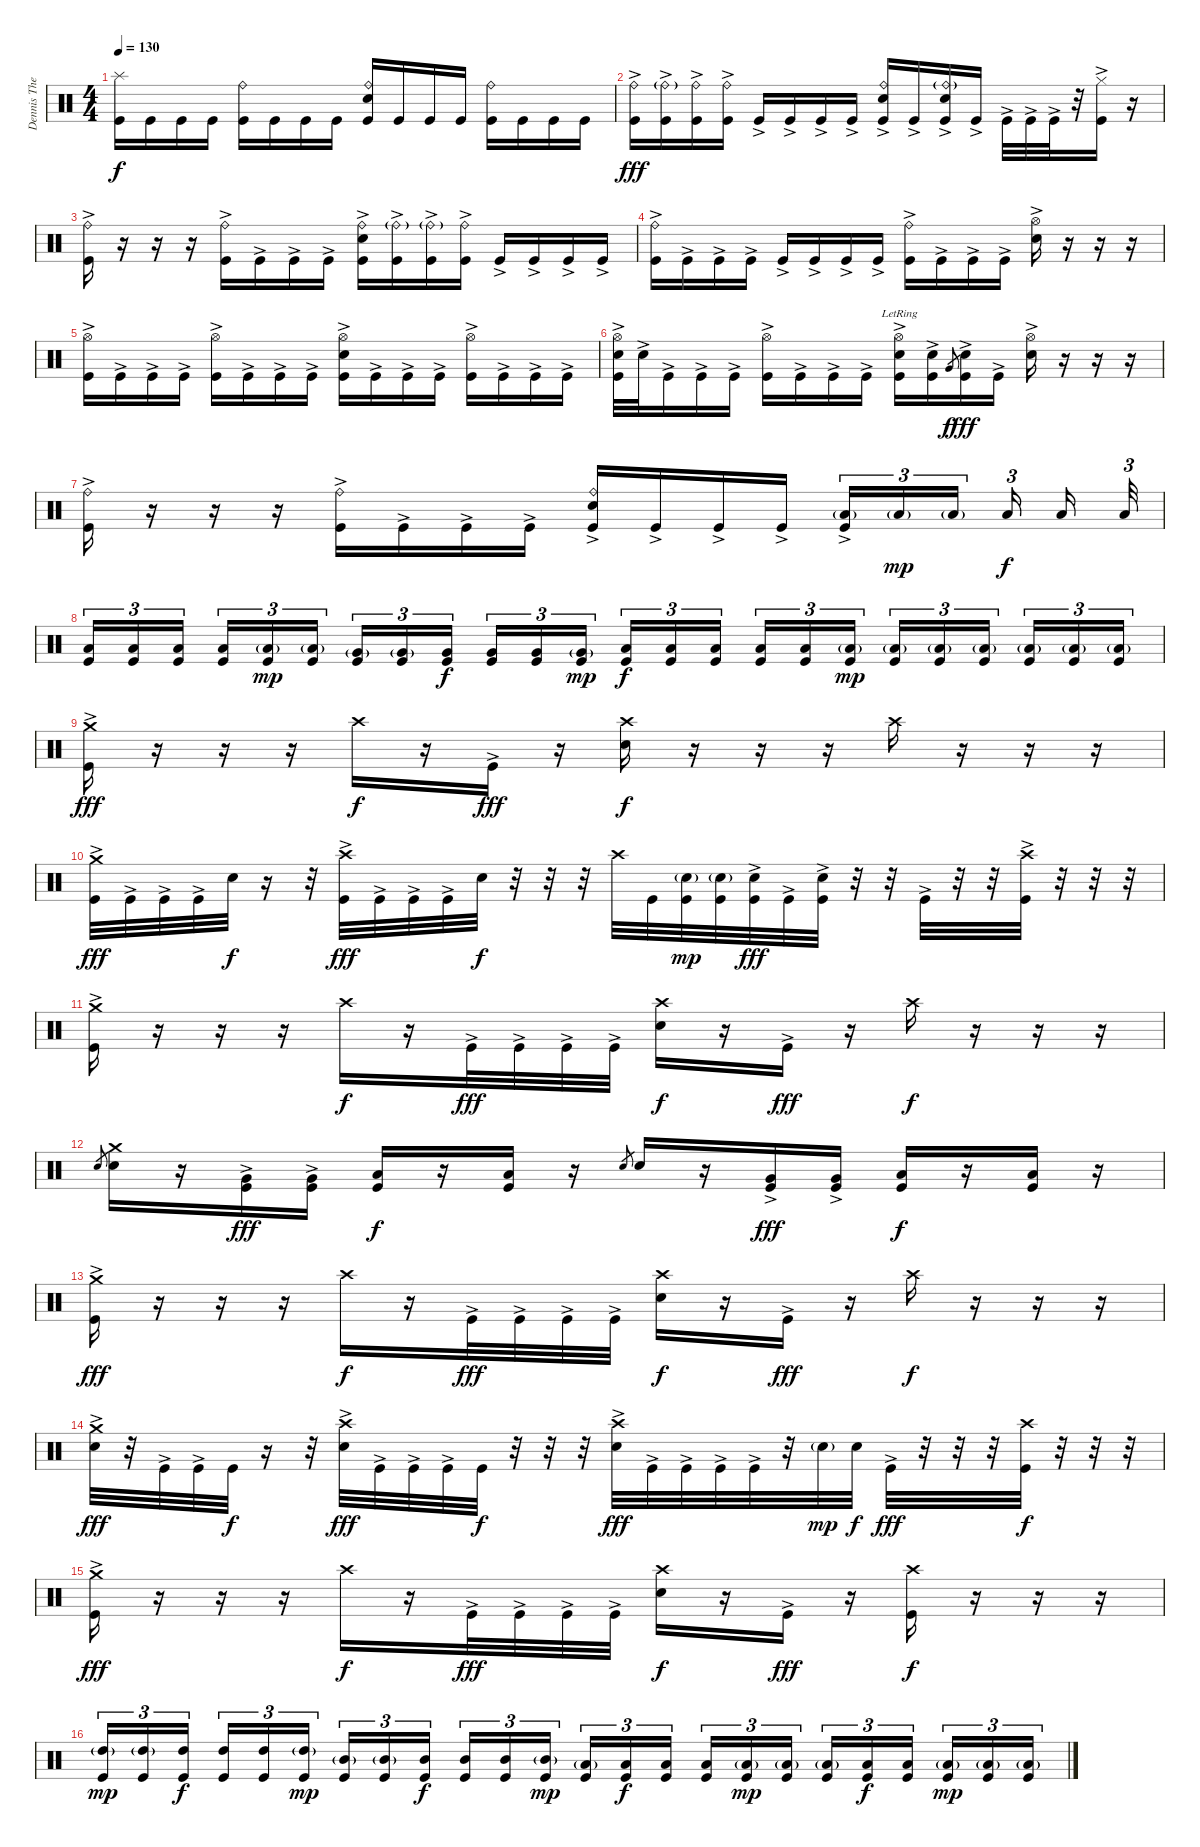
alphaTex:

\track ("Dennis The Menace" "Dennis The") {instrument percussion}
\staff {score}
\articulation defaults
\ts (4 4)
\tempo 130
\clef neutral
\ks c
("Splash (hit)" "Kick (hit)").16{dy f} "Kick (hit)".16 "Kick (hit)".16 "Kick (hit)".16 ("Ride (bell)" "Kick (hit)").16 "Kick (hit)".16 "Kick (hit)".16 "Kick (hit)".16 ("Ride (bell)" "Electric Snare (hit)" "Kick (hit)").16 "Kick (hit)".16 "Kick (hit)".16 "Kick (hit)".16 ("Ride (bell)" "Kick (hit)").16 "Kick (hit)".16 "Kick (hit)".16 "Kick (hit)".16 |
("Ride (bell)" "Kick (hit)"{ac}).16{dy fff} ("Ride (bell)"{g} "Kick (hit)"{ac}).16 ("Ride (bell)" "Kick (hit)"{ac}).16 ("Ride (bell)" "Kick (hit)"{ac}).16 "Kick (hit)"{ac}.16 "Kick (hit)"{ac}.16 "Kick (hit)"{ac}.16 "Kick (hit)"{ac}.16 ("Ride (bell)" "Electric Snare (hit)"{ac} "Kick (hit)"{ac}).16 "Kick (hit)"{ac}.16 ("Ride (bell)"{g} "Electric Snare (hit)" "Kick (hit)"{ac}).16 "Kick (hit)"{ac}.16 "Kick (hit)"{ac}.32 "Kick (hit)"{ac}.32 "Kick (hit)"{ac}.32 r.32 ("Hi-Hat (closed)" "Kick (hit)"{ac}).16 r.16 |
("Ride (bell)" "Kick (hit)"{ac}).16 r.16 r.16 r.16 ("Ride (bell)" "Kick (hit)"{ac}).16 "Kick (hit)"{ac}.16 "Kick (hit)"{ac}.16 "Kick (hit)"{ac}.16 ("Ride (bell)" "Electric Snare (hit)" "Kick (hit)"{ac}).16 ("Ride (bell)"{g} "Kick (hit)"{ac}).16 ("Ride (bell)"{g} "Kick (hit)"{ac}).16 ("Ride (bell)" "Kick (hit)"{ac}).16 "Kick (hit)"{ac}.16 "Kick (hit)"{ac}.16 "Kick (hit)"{ac}.16 "Kick (hit)"{ac}.16 |
("Ride (bell)" "Kick (hit)"{ac}).16 "Kick (hit)"{ac}.16 "Kick (hit)"{ac}.16 "Kick (hit)"{ac}.16 "Kick (hit)"{ac}.16 "Kick (hit)"{ac}.16 "Kick (hit)"{ac}.16 "Kick (hit)"{ac}.16 ("Ride (bell)" "Kick (hit)"{ac}).16 "Kick (hit)"{ac}.16 "Kick (hit)"{ac}.16 "Kick (hit)"{ac}.16 ("Hi-Hat (open)" "Electric Snare (hit)"{ac}).16 r.16 r.16 r.16 |
("Hi-Hat (open)" "Kick (hit)"{ac}).16 "Kick (hit)"{ac}.16 "Kick (hit)"{ac}.16 "Kick (hit)"{ac}.16 ("Hi-Hat (open)" "Kick (hit)"{ac}).16 "Kick (hit)"{ac}.16 "Kick (hit)"{ac}.16 "Kick (hit)"{ac}.16 ("Hi-Hat (open)" "Electric Snare (hit)" "Kick (hit)"{ac}).16 "Kick (hit)"{ac}.16 "Kick (hit)"{ac}.16 "Kick (hit)"{ac}.16 ("Hi-Hat (open)" "Kick (hit)"{ac}).16 "Kick (hit)"{ac}.16 "Kick (hit)"{ac}.16 "Kick (hit)"{ac}.16 |
("Hi-Hat (open)" "Electric Snare (hit)" "Kick (hit)"{ac}).32 "Electric Snare (hit)"{ac}.32 "Kick (hit)"{ac}.16 "Kick (hit)"{ac}.16 "Kick (hit)"{ac}.16 ("Hi-Hat (open)" "Kick (hit)"{ac}).16 "Kick (hit)"{ac}.16 "Kick (hit)"{ac}.16 "Kick (hit)"{ac}.16 ("Hi-Hat (open)" "Electric Snare (hit)"{ac lr} "Kick (hit)"{ac}).16 ("Electric Snare (hit)" "Kick (hit)"{ac}).16 "Very Low Tom (hit)".8{gr dy f} ("Electric Snare (hit)" "Kick (hit)"{ac}).16{dy fff} "Kick (hit)"{ac}.16 ("Hi-Hat (open)" "Electric Snare (hit)"{ac}).16 r.16 r.16 r.16 |
("Ride (bell)" "Kick (hit)"{ac}).16 r.16 r.16 r.16 ("Ride (bell)" "Kick (hit)"{ac}).16 "Kick (hit)"{ac}.16 "Kick (hit)"{ac}.16 "Kick (hit)"{ac}.16 ("Ride (bell)" "Electric Snare (hit)" "Kick (hit)"{ac}).16 "Kick (hit)"{ac}.16 "Kick (hit)"{ac}.16 "Kick (hit)"{ac}.16 ("Low Tom (hit)"{g} "Kick (hit)"{ac}).16{tu (3 2)} "Low Tom (hit)"{g}.16{tu (3 2) dy mp} "Low Tom (hit)"{g}.16{tu (3 2)} "Low Tom (hit)".16{tu (3 2) dy f} "Low Tom (hit)".16 "Low Tom (hit)".32{tu (3 2)} |
("Low Tom (hit)" "Kick (hit)").16{tu (3 2)} ("Low Tom (hit)" "Kick (hit)").16{tu (3 2)} ("Low Tom (hit)" "Kick (hit)").16{tu (3 2)} ("Low Tom (hit)" "Kick (hit)").16{tu (3 2)} ("Low Tom (hit)"{g} "Kick (hit)").16{tu (3 2) dy mp} ("Low Tom (hit)"{g} "Kick (hit)").16{tu (3 2)} ("Very Low Tom (hit)"{g} "Kick (hit)").16{tu (3 2)} ("Very Low Tom (hit)"{g} "Kick (hit)").16{tu (3 2)} ("Very Low Tom (hit)" "Kick (hit)").16{tu (3 2) dy f} ("Very Low Tom (hit)" "Kick (hit)").16{tu (3 2)} ("Very Low Tom (hit)" "Kick (hit)").16{tu (3 2)} ("Very Low Tom (hit)"{g} "Kick (hit)").16{tu (3 2) dy mp} ("Low Floor Tom (hit)" "Kick (hit)").16{tu (3 2) dy f} ("Low Floor Tom (hit)" "Kick (hit)").16{tu (3 2)} ("Low Floor Tom (hit)" "Kick (hit)").16{tu (3 2)} ("Low Floor Tom (hit)" "Kick (hit)").16{tu (3 2)} ("Low Floor Tom (hit)" "Kick (hit)").16{tu (3 2)} ("Low Floor Tom (hit)"{g} "Kick (hit)").16{tu (3 2) dy mp} ("Low Floor Tom (hit)"{g} "Kick (hit)").16{tu (3 2)} ("Low Floor Tom (hit)"{g} "Kick (hit)").16{tu (3 2)} ("Low Floor Tom (hit)"{g} "Kick (hit)").16{tu (3 2)} ("Low Floor Tom (hit)"{g} "Kick (hit)").16{tu (3 2)} ("Low Floor Tom (hit)"{g} "Kick (hit)").16{tu (3 2)} ("Low Floor Tom (hit)"{g} "Kick (hit)").16{tu (3 2)} |
("Crash medium (hit)" "Kick (hit)"{ac}).16{dy fff} r.16 r.16 r.16 "Crash high (hit)".16{dy f} r.16 "Kick (hit)"{ac}.16{dy fff} r.16 ("Crash high (hit)" "Electric Snare (hit)").16{dy f} r.16 r.16 r.16 "Crash high (hit)".16 r.16 r.16 r.16 |
("Crash medium (hit)" "Kick (hit)"{ac}).32{dy fff} "Kick (hit)"{ac}.32 "Kick (hit)"{ac}.32 "Kick (hit)"{ac}.32 "Electric Snare (hit)".32{dy f} r.16 r.32 ("Crash high (hit)" "Kick (hit)"{ac}).32{dy fff} "Kick (hit)"{ac}.32 "Kick (hit)"{ac}.32 "Kick (hit)"{ac}.32 "Electric Snare (hit)".32{dy f} r.32 r.32 r.32 "Crash high (hit)".32 "Kick (hit)".32 ("Electric Snare (hit)"{g} "Kick (hit)").32{dy mp} ("Electric Snare (hit)"{g} "Kick (hit)").32 ("Electric Snare (hit)" "Kick (hit)"{ac}).32{dy fff} "Kick (hit)"{ac}.32 ("Electric Snare (hit)" "Kick (hit)"{ac}).32 r.32 r.32 "Kick (hit)"{ac}.32 r.32 r.32 ("Crash high (hit)" "Kick (hit)"{ac}).32 r.32 r.32 r.32 |
("Crash medium (hit)" "Kick (hit)"{ac}).16 r.16 r.16 r.16 "Crash high (hit)".16{dy f} r.16 "Kick (hit)"{ac}.32{dy fff} "Kick (hit)"{ac}.32 "Kick (hit)"{ac}.32 "Kick (hit)"{ac}.32 ("Crash high (hit)" "Electric Snare (hit)").16{dy f} r.16 "Kick (hit)"{ac}.16{dy fff} r.16 "Crash high (hit)".16{dy f} r.16 r.16 r.16 |
"Electric Snare (hit)".8{gr} ("Crash medium (hit)" "Electric Snare (hit)").16 r.16 ("Very Low Tom (hit)" "Kick (hit)"{ac}).16{dy fff} ("Very Low Tom (hit)" "Kick (hit)"{ac}).16 ("Low Floor Tom (hit)" "Kick (hit)").16{dy f} r.16 ("Low Floor Tom (hit)" "Kick (hit)").16 r.16 "Electric Snare (hit)".8{gr} "Electric Snare (hit)".16 r.16 ("Very Low Tom (hit)" "Kick (hit)"{ac}).16{dy fff} ("Very Low Tom (hit)" "Kick (hit)"{ac}).16 ("Low Floor Tom (hit)" "Kick (hit)").16{dy f} r.16 ("Low Floor Tom (hit)" "Kick (hit)").16 r.16 |
("Crash medium (hit)" "Kick (hit)"{ac}).16{dy fff} r.16 r.16 r.16 "Crash high (hit)".16{dy f} r.16 "Kick (hit)"{ac}.32{dy fff} "Kick (hit)"{ac}.32 "Kick (hit)"{ac}.32 "Kick (hit)"{ac}.32 ("Crash high (hit)" "Electric Snare (hit)").16{dy f} r.16 "Kick (hit)"{ac}.16{dy fff} r.16 "Crash high (hit)".16{dy f} r.16 r.16 r.16 |
("Crash medium (hit)" "Electric Snare (hit)"{ac}).32{dy fff} r.32 "Kick (hit)"{ac}.32 "Kick (hit)"{ac}.32 "Kick (hit)".32{dy f} r.16 r.32 ("Crash high (hit)" "Electric Snare (hit)"{ac}).32{dy fff} "Kick (hit)"{ac}.32 "Kick (hit)"{ac}.32 "Kick (hit)"{ac}.32 "Kick (hit)".32{dy f} r.32 r.32 r.32 ("Crash high (hit)" "Electric Snare (hit)"{ac}).32{dy fff} "Kick (hit)"{ac}.32 "Kick (hit)"{ac}.32 "Kick (hit)"{ac}.32 "Kick (hit)"{ac}.32 r.32 "Electric Snare (hit)"{g}.32{dy mp} "Electric Snare (hit)".32{dy f} "Kick (hit)"{ac}.32{dy fff} r.32 r.32 r.32 ("Crash high (hit)" "Kick (hit)").32{dy f} r.32 r.32 r.32 |
("Crash medium (hit)" "Kick (hit)"{ac}).16{dy fff} r.16 r.16 r.16 "Crash high (hit)".16{dy f} r.16 "Kick (hit)"{ac}.32{dy fff} "Kick (hit)"{ac}.32 "Kick (hit)"{ac}.32 "Kick (hit)"{ac}.32 ("Crash high (hit)" "Electric Snare (hit)").16{dy f} r.16 "Kick (hit)"{ac}.16{dy fff} r.16 ("Crash high (hit)" "Kick (hit)").16{dy f} r.16 r.16 r.16 |
("High Tom (hit)"{g} "Kick (hit)").16{tu (3 2) dy mp} ("High Tom (hit)"{g} "Kick (hit)").16{tu (3 2)} ("High Tom (hit)" "Kick (hit)").16{tu (3 2) dy f} ("High Tom (hit)" "Kick (hit)").16{tu (3 2)} ("High Tom (hit)" "Kick (hit)").16{tu (3 2)} ("High Tom (hit)"{g} "Kick (hit)").16{tu (3 2) dy mp} ("Mid Tom (hit)"{g} "Kick (hit)").16{tu (3 2)} ("Mid Tom (hit)"{g} "Kick (hit)").16{tu (3 2)} ("Mid Tom (hit)" "Kick (hit)").16{tu (3 2) dy f} ("Mid Tom (hit)" "Kick (hit)").16{tu (3 2)} ("Mid Tom (hit)" "Kick (hit)").16{tu (3 2)} ("Mid Tom (hit)"{g} "Kick (hit)").16{tu (3 2) dy mp} ("Low Tom (hit)"{g} "Kick (hit)").16{tu (3 2)} ("Low Tom (hit)" "Kick (hit)").16{tu (3 2) dy f} ("Low Tom (hit)" "Kick (hit)").16{tu (3 2)} ("Low Tom (hit)" "Kick (hit)").16{tu (3 2)} ("Low Tom (hit)"{g} "Kick (hit)").16{tu (3 2) dy mp} ("Low Tom (hit)"{g} "Kick (hit)").16{tu (3 2)} ("Low Floor Tom (hit)"{g} "Kick (hit)").16{tu (3 2)} ("Low Floor Tom (hit)" "Kick (hit)").16{tu (3 2) dy f} ("Low Floor Tom (hit)" "Kick (hit)").16{tu (3 2)} ("Low Floor Tom (hit)"{g} "Kick (hit)").16{tu (3 2) dy mp} ("Low Floor Tom (hit)"{g} "Kick (hit)").16{tu (3 2)} ("Low Floor Tom (hit)"{g} "Kick (hit)").16{tu (3 2)}
